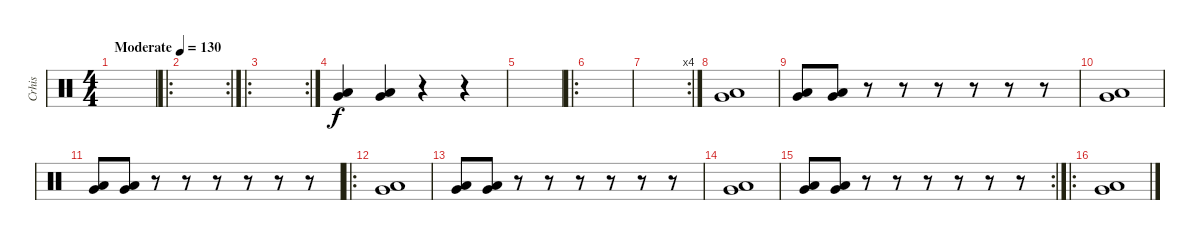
\track ("Crhis" "Crhis") {instrument percussion}
\staff {score}
\articulation defaults
\ts (4 4)
\tempo (130 "Moderate")
\clef neutral
\ks c
|
\ro
\rc 2
|
\ro
\rc 2
|
("Very Low Tom (hit)" "Low Floor Tom (hit)").4 ("Very Low Tom (hit)" "Low Floor Tom (hit)").4 r.4 r.4 |
|
\ro
|
\rc 4
|
("Very Low Tom (hit)" "Low Floor Tom (hit)").1 |
("Very Low Tom (hit)" "Low Floor Tom (hit)").8 ("Very Low Tom (hit)" "Low Floor Tom (hit)").8 r.8 r.8 r.8 r.8 r.8 r.8 |
("Very Low Tom (hit)" "Low Floor Tom (hit)").1 |
("Very Low Tom (hit)" "Low Floor Tom (hit)").8 ("Very Low Tom (hit)" "Low Floor Tom (hit)").8 r.8 r.8 r.8 r.8 r.8 r.8 |
\ro
("Very Low Tom (hit)" "Low Floor Tom (hit)").1 |
("Very Low Tom (hit)" "Low Floor Tom (hit)").8 ("Very Low Tom (hit)" "Low Floor Tom (hit)").8 r.8 r.8 r.8 r.8 r.8 r.8 |
("Very Low Tom (hit)" "Low Floor Tom (hit)").1 |
\rc 2
("Very Low Tom (hit)" "Low Floor Tom (hit)").8 ("Very Low Tom (hit)" "Low Floor Tom (hit)").8 r.8 r.8 r.8 r.8 r.8 r.8 |
\ro
("Very Low Tom (hit)" "Low Floor Tom (hit)").1
